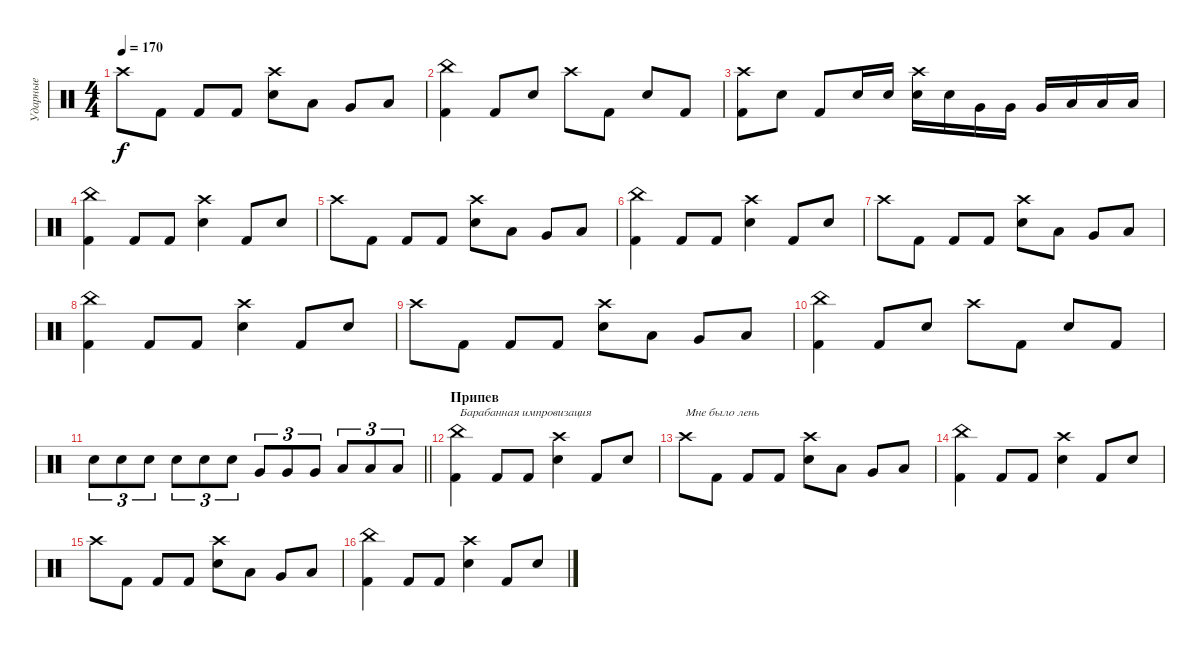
\track ("Ударные" "Ударные") {instrument percussion}
\staff {score}
\articulation defaults
\ts (4 4)
\tempo 170
\clef neutral
\ks c "Crash high (hit)".8{dy f} "Kick (hit) 2".8 "Kick (hit) 2".8 "Kick (hit) 2".8
("Electric Snare (hit)" "Crash high (hit)").8 "Low Tom (hit)".8 "Very Low Tom (hit)".8 "Low Floor Tom (hit)".8 |
("Kick (hit) 2" "China (hit)").4 "Kick (hit) 2".8 "Electric Snare (hit)".8 "Crash high (hit)".8 "Kick (hit) 2".8 "Electric Snare (hit)".8 "Kick (hit) 2".8 |
("Kick (hit) 2" "Crash high (hit)").8 "Electric Snare (hit)".8 "Kick (hit) 2".8 "Electric Snare (hit)".16 "Electric Snare (hit)".16 ("Electric Snare (hit)" "Crash high (hit)").16 "Electric Snare (hit)".16 "Very Low Tom (hit)".16 "Very Low Tom (hit)".16 "Very Low Tom (hit)".16 "Low Floor Tom (hit)".16 "Low Floor Tom (hit)".16 "Low Floor Tom (hit)".16 |
("Kick (hit) 2" "China (hit)").4 "Kick (hit) 2".8 "Kick (hit) 2".8 ("Electric Snare (hit)" "Crash high (hit)").4 "Kick (hit) 2".8 "Electric Snare (hit)".8 |
"Crash high (hit)".8 "Kick (hit) 2".8 "Kick (hit) 2".8 "Kick (hit) 2".8 ("Electric Snare (hit)" "Crash high (hit)").8 "Low Tom (hit)".8 "Very Low Tom (hit)".8 "Low Floor Tom (hit)".8 |
("Kick (hit) 2" "China (hit)").4 "Kick (hit) 2".8 "Kick (hit) 2".8 ("Electric Snare (hit)" "Crash high (hit)").4 "Kick (hit) 2".8 "Electric Snare (hit)".8 |
"Crash high (hit)".8 "Kick (hit) 2".8 "Kick (hit) 2".8 "Kick (hit) 2".8 ("Electric Snare (hit)" "Crash high (hit)").8 "Low Tom (hit)".8 "Very Low Tom (hit)".8 "Low Floor Tom (hit)".8 |
("Kick (hit) 2" "China (hit)").4 "Kick (hit) 2".8 "Kick (hit) 2".8 ("Electric Snare (hit)" "Crash high (hit)").4 "Kick (hit) 2".8 "Electric Snare (hit)".8 |
"Crash high (hit)".8 "Kick (hit) 2".8 "Kick (hit) 2".8 "Kick (hit) 2".8 ("Electric Snare (hit)" "Crash high (hit)").8 "Low Tom (hit)".8 "Very Low Tom (hit)".8 "Low Floor Tom (hit)".8 |
("Kick (hit) 2" "China (hit)").4 "Kick (hit) 2".8 "Electric Snare (hit)".8 "Crash high (hit)".8 "Kick (hit) 2".8 "Electric Snare (hit)".8 "Kick (hit) 2".8 |
\barLineRight lightlight "Electric Snare (hit)".8{tu (3 2)} "Electric Snare (hit)".8{tu (3 2)} "Electric Snare (hit)".8{tu (3 2)} "Electric Snare (hit)".8{tu (3 2)} "Electric Snare (hit)".8{tu (3 2)} "Electric Snare (hit)".8{tu (3 2)} "Very Low Tom (hit)".8{tu (3 2)} "Very Low Tom (hit)".8{tu (3 2)} "Very Low Tom (hit)".8{tu (3 2)} "Low Floor Tom (hit)".8{tu (3 2)} "Low Floor Tom (hit)".8{tu (3 2)} "Low Floor Tom (hit)".8{tu (3 2)}
|
\section ("" "Припев")
("Kick (hit) 2" "China (hit)").4{txt "Барабанная импровизация"} "Kick (hit) 2".8 "Kick (hit) 2".8 ("Electric Snare (hit)" "Crash high (hit)").4 "Kick (hit) 2".8 "Electric Snare (hit)".8 |
"Crash high (hit)".8{txt "Мне было лень"} "Kick (hit) 2".8 "Kick (hit) 2".8 "Kick (hit) 2".8 ("Electric Snare (hit)" "Crash high (hit)").8 "Low Tom (hit)".8 "Very Low Tom (hit)".8 "Low Floor Tom (hit)".8 |
("Kick (hit) 2" "China (hit)").4 "Kick (hit) 2".8 "Kick (hit) 2".8 ("Electric Snare (hit)" "Crash high (hit)").4 "Kick (hit) 2".8 "Electric Snare (hit)".8 |
"Crash high (hit)".8 "Kick (hit) 2".8 "Kick (hit) 2".8 "Kick (hit) 2".8 ("Electric Snare (hit)" "Crash high (hit)").8 "Low Tom (hit)".8 "Very Low Tom (hit)".8 "Low Floor Tom (hit)".8 |
("Kick (hit) 2" "China (hit)").4 "Kick (hit) 2".8 "Kick (hit) 2".8 ("Electric Snare (hit)" "Crash high (hit)").4 "Kick (hit) 2".8 "Electric Snare (hit)".8
